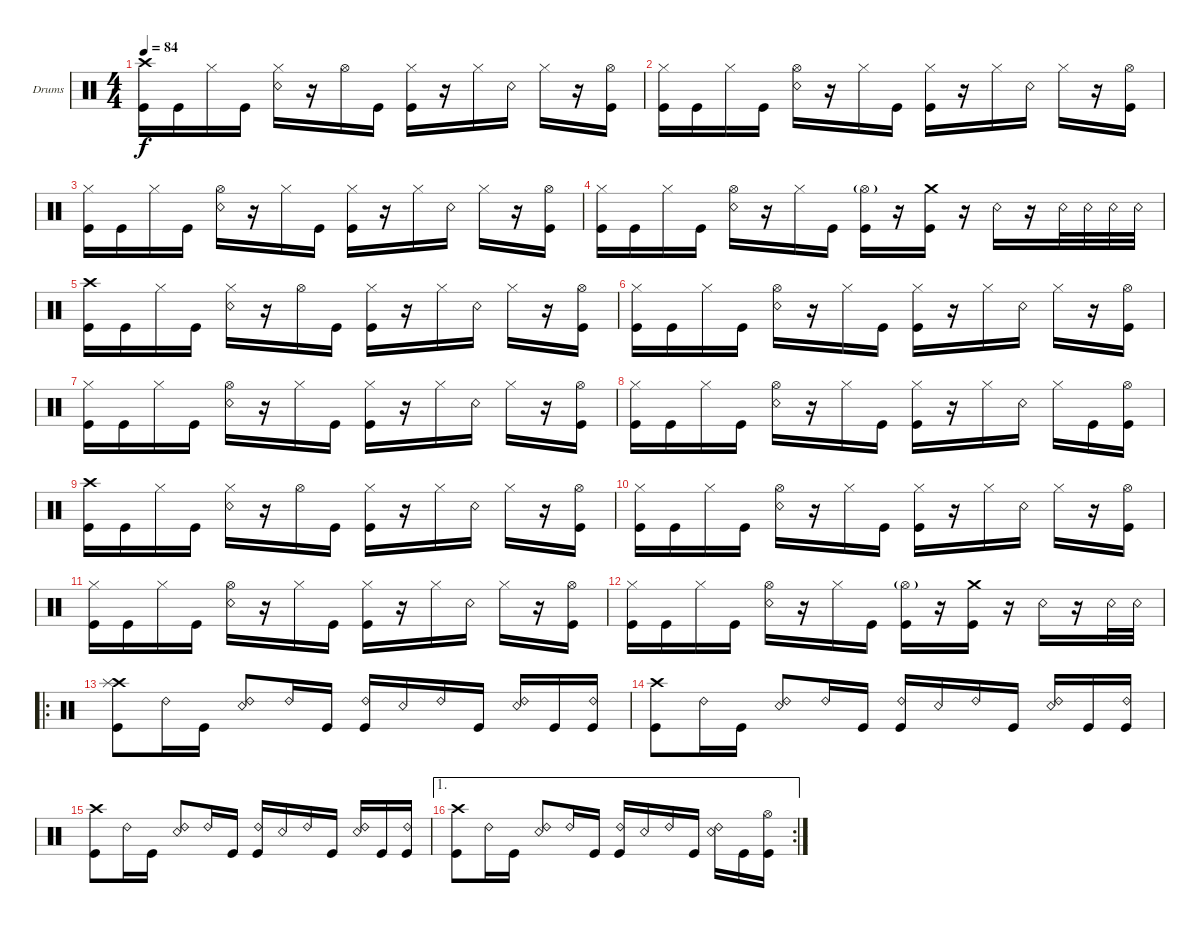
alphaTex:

\defaultSystemsLayout 4
\bracketExtendMode groupsimilarinstruments
\firstSystemTrackNameOrientation horizontal
\otherSystemsTrackNameOrientation horizontal
\track ("Drumkit" "Drums") {instrument percussion}
\staff {score}
\articulation defaults
\ts (4 4)
\tempo 84
\clef neutral
\scale
0.333333
\ks c
("Kick (hit)" "Crash high (hit)").16{dy f} "Kick (hit)".16 "Hi-Hat (closed)".16 "Kick (hit)".16 ("Snare (rim shot)" "Hi-Hat (closed)").16 r.16 "Hi-Hat (open)".16 "Kick (hit)".16 ("Kick (hit)" "Hi-Hat (closed)").16 r.16 "Hi-Hat (closed)".16 "Snare (rim shot)".16 "Hi-Hat (closed)".16 r.16 ("Kick (hit)" "Hi-Hat (open)").16 |
\scale
0.333333 ("Kick (hit)" "Hi-Hat (closed)").16 "Kick (hit)".16 "Hi-Hat (closed)".16 "Kick (hit)".16 ("Snare (rim shot)" "Hi-Hat (open)").16 r.16 "Hi-Hat (closed)".16 "Kick (hit)".16 ("Kick (hit)" "Hi-Hat (closed)").16 r.16 "Hi-Hat (closed)".16 "Snare (rim shot)".16 "Hi-Hat (closed)".16 r.16 ("Kick (hit)" "Hi-Hat (open)").16 |
\scale
0.333333 ("Kick (hit)" "Hi-Hat (closed)").16 "Kick (hit)".16 "Hi-Hat (closed)".16 "Kick (hit)".16 ("Snare (rim shot)" "Hi-Hat (open)").16 r.16 "Hi-Hat (closed)".16 "Kick (hit)".16 ("Kick (hit)" "Hi-Hat (closed)").16 r.16 "Hi-Hat (closed)".16 "Snare (rim shot)".16 "Hi-Hat (closed)".16 r.16 ("Kick (hit)" "Hi-Hat (open)").16 |
\scale
0.333333 ("Kick (hit)" "Hi-Hat (closed)").16 "Kick (hit)".16 "Hi-Hat (closed)".16 "Kick (hit)".16 ("Snare (rim shot)" "Hi-Hat (open)").16 r.16 "Hi-Hat (closed)".16 "Kick (hit)".16 ("Kick (hit)" "Hi-Hat (open)"{g}).16 r.16 ("Kick (hit)" "Crash medium (hit)").16 r.16 "Snare (rim shot)".16 r.16 "Snare (rim shot)".32 "Snare (rim shot)".32 "Snare (rim shot)".32 "Snare (rim shot)".32 |
\scale
0.333333 ("Kick (hit)" "Crash high (hit)").16 "Kick (hit)".16 "Hi-Hat (closed)".16 "Kick (hit)".16 ("Snare (rim shot)" "Hi-Hat (closed)").16 r.16 "Hi-Hat (open)".16 "Kick (hit)".16 ("Kick (hit)" "Hi-Hat (closed)").16 r.16 "Hi-Hat (closed)".16 "Snare (rim shot)".16 "Hi-Hat (closed)".16 r.16 ("Kick (hit)" "Hi-Hat (open)").16 |
\scale
0.333333 ("Kick (hit)" "Hi-Hat (closed)").16 "Kick (hit)".16 "Hi-Hat (closed)".16 "Kick (hit)".16 ("Snare (rim shot)" "Hi-Hat (open)").16 r.16 "Hi-Hat (closed)".16 "Kick (hit)".16 ("Kick (hit)" "Hi-Hat (closed)").16 r.16 "Hi-Hat (closed)".16 "Snare (rim shot)".16 "Hi-Hat (closed)".16 r.16 ("Kick (hit)" "Hi-Hat (open)").16 |
\scale
0.333333 ("Kick (hit)" "Hi-Hat (closed)").16 "Kick (hit)".16 "Hi-Hat (closed)".16 "Kick (hit)".16 ("Snare (rim shot)" "Hi-Hat (open)").16 r.16 "Hi-Hat (closed)".16 "Kick (hit)".16 ("Kick (hit)" "Hi-Hat (closed)").16 r.16 "Hi-Hat (closed)".16 "Snare (rim shot)".16 "Hi-Hat (closed)".16 r.16 ("Kick (hit)" "Hi-Hat (open)").16 |
\scale
0.333333 ("Kick (hit)" "Hi-Hat (closed)").16 "Kick (hit)".16 "Hi-Hat (closed)".16 "Kick (hit)".16 ("Snare (rim shot)" "Hi-Hat (open)").16 r.16 "Hi-Hat (closed)".16 "Kick (hit)".16 ("Kick (hit)" "Hi-Hat (closed)").16 r.16 "Hi-Hat (closed)".16 "Snare (rim shot)".16 "Hi-Hat (closed)".16 "Kick (hit)".16 ("Kick (hit)" "Hi-Hat (open)").16 |
\scale
0.333333 ("Kick (hit)" "Crash high (hit)").16 "Kick (hit)".16 "Hi-Hat (closed)".16 "Kick (hit)".16 ("Snare (rim shot)" "Hi-Hat (closed)").16 r.16 "Hi-Hat (open)".16 "Kick (hit)".16 ("Kick (hit)" "Hi-Hat (closed)").16 r.16 "Hi-Hat (closed)".16 "Snare (rim shot)".16 "Hi-Hat (closed)".16 r.16 ("Kick (hit)" "Hi-Hat (open)").16 |
\scale
0.333333 ("Kick (hit)" "Hi-Hat (closed)").16 "Kick (hit)".16 "Hi-Hat (closed)".16 "Kick (hit)".16 ("Snare (rim shot)" "Hi-Hat (open)").16 r.16 "Hi-Hat (closed)".16 "Kick (hit)".16 ("Kick (hit)" "Hi-Hat (closed)").16 r.16 "Hi-Hat (closed)".16 "Snare (rim shot)".16 "Hi-Hat (closed)".16 r.16 ("Kick (hit)" "Hi-Hat (open)").16 |
\scale
0.333333 ("Kick (hit)" "Hi-Hat (closed)").16 "Kick (hit)".16 "Hi-Hat (closed)".16 "Kick (hit)".16 ("Snare (rim shot)" "Hi-Hat (open)").16 r.16 "Hi-Hat (closed)".16 "Kick (hit)".16 ("Kick (hit)" "Hi-Hat (closed)").16 r.16 "Hi-Hat (closed)".16 "Snare (rim shot)".16 "Hi-Hat (closed)".16 r.16 ("Kick (hit)" "Hi-Hat (open)").16 |
\scale
0.311475 ("Kick (hit)" "Hi-Hat (closed)").16 "Kick (hit)".16 "Hi-Hat (closed)".16 "Kick (hit)".16 ("Snare (rim shot)" "Hi-Hat (open)").16 r.16 "Hi-Hat (closed)".16 "Kick (hit)".16 ("Kick (hit)" "Hi-Hat (open)"{g}).16 r.16 ("Kick (hit)" "Crash medium (hit)").16 r.16 "Snare (rim shot)".16 r.16 "Snare (rim shot)".32 "Snare (rim shot)".32 |
\ro
\scale
0.377049 ("Kick (hit)" "Crash high (hit)" "Splash (hit)").8 "Ride (bell) 2".16 "Kick (hit)".16 ("Snare (rim shot)" "Ride (bell) 2").8 "Ride (bell) 2".16 "Kick (hit)".16 ("Kick (hit)" "Ride (bell) 2").16 "Snare (rim shot)".16 "Ride (bell) 2".16 "Kick (hit)".16 ("Snare (rim shot)" "Ride (bell) 2").16 "Kick (hit)".16 ("Kick (hit)" "Ride (bell) 2").16 |
\scale
0.311475 ("Kick (hit)" "Crash high (hit)").8 "Ride (bell) 2".16 "Kick (hit)".16 ("Snare (rim shot)" "Ride (bell) 2").8 "Ride (bell) 2".16 "Kick (hit)".16 ("Kick (hit)" "Ride (bell) 2").16 "Snare (rim shot)".16 "Ride (bell) 2".16 "Kick (hit)".16 ("Snare (rim shot)" "Ride (bell) 2").16 "Kick (hit)".16 ("Kick (hit)" "Ride (bell) 2").16 |
\scale
0.322034 ("Kick (hit)" "Crash high (hit)").8 "Ride (bell) 2".16 "Kick (hit)".16 ("Snare (rim shot)" "Ride (bell) 2").8 "Ride (bell) 2".16 "Kick (hit)".16 ("Kick (hit)" "Ride (bell) 2").16 "Snare (rim shot)".16 "Ride (bell) 2".16 "Kick (hit)".16 ("Snare (rim shot)" "Ride (bell) 2").16 "Kick (hit)".16 ("Kick (hit)" "Ride (bell) 2").16 |
\ae 1
\rc 2
\scale
0.355932 ("Kick (hit)" "Crash high (hit)").8 "Ride (bell) 2".16 "Kick (hit)".16 ("Snare (rim shot)" "Ride (bell) 2").8 "Ride (bell) 2".16 "Kick (hit)".16 ("Kick (hit)" "Ride (bell) 2").16 "Snare (rim shot)".16 "Ride (bell) 2".16 "Kick (hit)".16 ("Snare (rim shot)" "Ride (bell) 2").16 "Kick (hit)".16 ("Kick (hit)" "Hi-Hat (open)").16
